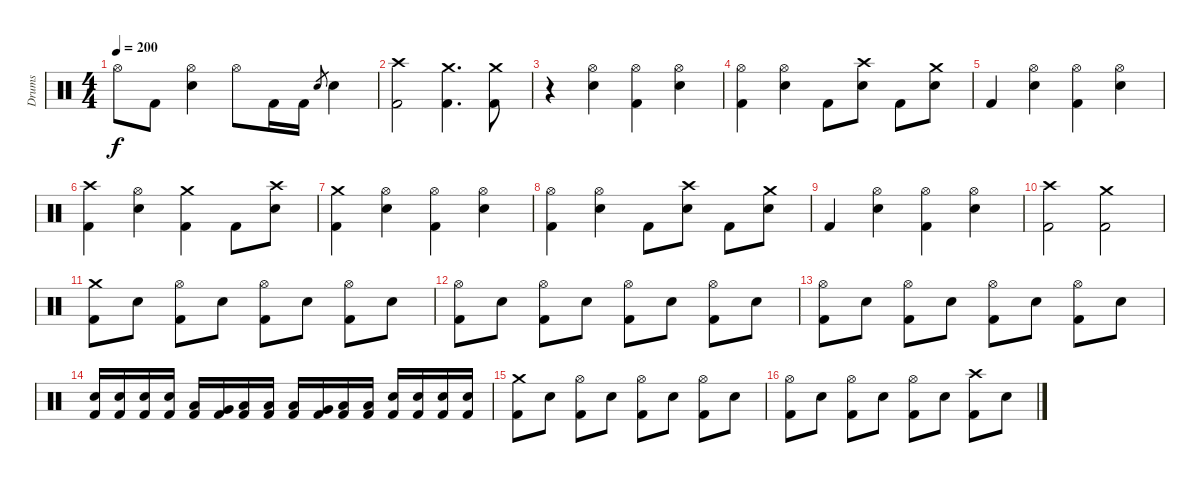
\track ("Drums" "Drums") {instrument percussion}
\staff {score}
\articulation defaults
\ts (4 4)
\tempo 200
\clef neutral
\ks c "Hi-Hat (open)".8{dy f} "Kick (hit) 2".8
("Hi-Hat (open)" "Electric Snare (hit)").4 "Hi-Hat (open)".8 "Kick (hit) 2".16 "Kick (hit) 2".16 "Electric Snare (hit)".8{gr} "Electric Snare (hit)".4 |
("Crash high (hit)" "Kick (hit) 2").2 ("Crash medium (hit)" "Kick (hit) 2").4{d} ("Crash medium (hit)" "Kick (hit) 2").8 |
r.4 ("Hi-Hat (open)" "Electric Snare (hit)").4 ("Hi-Hat (open)" "Kick (hit) 2").4 ("Hi-Hat (open)" "Electric Snare (hit)").4 |
("Hi-Hat (open)" "Kick (hit) 2").4 ("Hi-Hat (open)" "Electric Snare (hit)").4 "Kick (hit) 2".8 ("Crash high (hit)" "Electric Snare (hit)").8 "Kick (hit) 2".8 ("Crash medium (hit)" "Electric Snare (hit)").8 |
"Kick (hit) 2".4 ("Hi-Hat (open)" "Electric Snare (hit)").4 ("Hi-Hat (open)" "Kick (hit) 2").4 ("Hi-Hat (open)" "Electric Snare (hit)").4 |
("Crash high (hit)" "Kick (hit) 2").4 ("Hi-Hat (open)" "Electric Snare (hit)").4 ("Crash medium (hit)" "Kick (hit) 2").4 "Kick (hit) 2".8 ("Crash high (hit)" "Electric Snare (hit)").8 |
("Crash medium (hit)" "Kick (hit) 2").4 ("Hi-Hat (open)" "Electric Snare (hit)").4 ("Hi-Hat (open)" "Kick (hit) 2").4 ("Hi-Hat (open)" "Electric Snare (hit)").4 |
("Hi-Hat (open)" "Kick (hit) 2").4 ("Hi-Hat (open)" "Electric Snare (hit)").4 "Kick (hit) 2".8 ("Crash high (hit)" "Electric Snare (hit)").8 "Kick (hit) 2".8 ("Crash medium (hit)" "Electric Snare (hit)").8 |
"Kick (hit) 2".4 ("Hi-Hat (open)" "Electric Snare (hit)").4 ("Hi-Hat (open)" "Kick (hit) 2").4 ("Hi-Hat (open)" "Electric Snare (hit)").4 |
("Crash high (hit)" "Kick (hit) 2").2 ("Crash medium (hit)" "Kick (hit) 2").2 |
("Crash medium (hit)" "Kick (hit) 2").8 "Electric Snare (hit)".8 ("Hi-Hat (open)" "Kick (hit) 2").8 "Electric Snare (hit)".8 ("Hi-Hat (open)" "Kick (hit) 2").8 "Electric Snare (hit)".8 ("Hi-Hat (open)" "Kick (hit) 2").8 "Electric Snare (hit)".8 |
("Hi-Hat (open)" "Kick (hit) 2").8 "Electric Snare (hit)".8 ("Hi-Hat (open)" "Kick (hit) 2").8 "Electric Snare (hit)".8 ("Hi-Hat (open)" "Kick (hit) 2").8 "Electric Snare (hit)".8 ("Hi-Hat (open)" "Kick (hit) 2").8 "Electric Snare (hit)".8 |
("Hi-Hat (open)" "Kick (hit) 2").8 "Electric Snare (hit)".8 ("Hi-Hat (open)" "Kick (hit) 2").8 "Electric Snare (hit)".8 ("Hi-Hat (open)" "Kick (hit) 2").8 "Electric Snare (hit)".8 ("Hi-Hat (open)" "Kick (hit) 2").8 "Electric Snare (hit)".8 |
("Electric Snare (hit)" "Kick (hit) 2").16 ("Electric Snare (hit)" "Kick (hit) 2").16 ("Electric Snare (hit)" "Kick (hit) 2").16 ("Electric Snare (hit)" "Kick (hit) 2").16 ("Low Tom (hit)" "Kick (hit) 2").16 ("Very Low Tom (hit)" "Kick (hit) 2").16 ("Low Floor Tom (hit)" "Kick (hit) 2").16 ("Low Floor Tom (hit)" "Kick (hit) 2").16 ("Low Tom (hit)" "Kick (hit) 2").16 ("Very Low Tom (hit)" "Kick (hit) 2").16 ("Low Floor Tom (hit)" "Kick (hit) 2").16 ("Low Floor Tom (hit)" "Kick (hit) 2").16 ("Electric Snare (hit)" "Kick (hit) 2").16 ("Electric Snare (hit)" "Kick (hit) 2").16 ("Electric Snare (hit)" "Kick (hit) 2").16 ("Electric Snare (hit)" "Kick (hit) 2").16 |
("Crash medium (hit)" "Kick (hit) 2").8 "Electric Snare (hit)".8 ("Hi-Hat (open)" "Kick (hit) 2").8 "Electric Snare (hit)".8 ("Hi-Hat (open)" "Kick (hit) 2").8 "Electric Snare (hit)".8 ("Hi-Hat (open)" "Kick (hit) 2").8 "Electric Snare (hit)".8 |
("Hi-Hat (open)" "Kick (hit) 2").8 "Electric Snare (hit)".8 ("Hi-Hat (open)" "Kick (hit) 2").8 "Electric Snare (hit)".8 ("Hi-Hat (open)" "Kick (hit) 2").8 "Electric Snare (hit)".8 ("Crash high (hit)" "Kick (hit) 2").8 "Electric Snare (hit)".8
